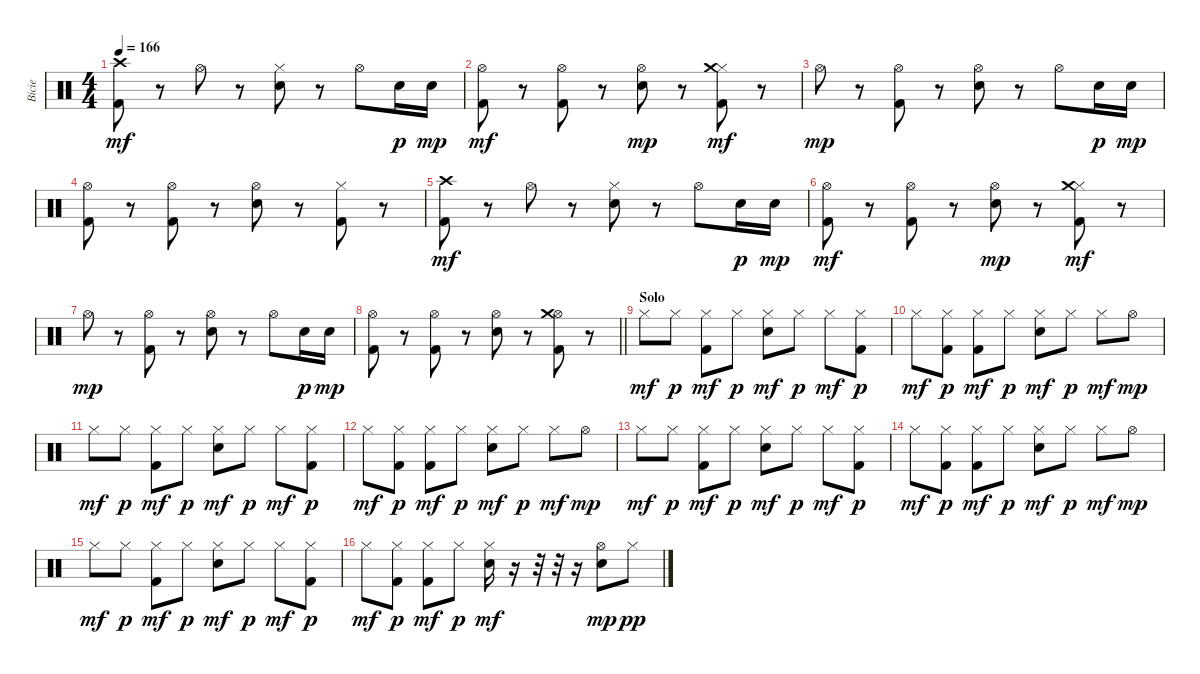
\track ("Bicie" "Bicie") {instrument percussion}
\staff {score}
\articulation defaults
\ts (4 4)
\tempo 166
\clef neutral
\ks c
("Crash high (hit)" "Kick (hit) 2").8{dy mf} r.8 "Hi-Hat (open)".8 r.8 ("Hi-Hat (closed)" "Electric Snare (hit)").8 r.8 "Hi-Hat (open)".8 "Electric Snare (hit)".16{dy p} "Electric Snare (hit)".16{dy mp} |
("Hi-Hat (open)" "Kick (hit) 2").8{dy mf} r.8 ("Hi-Hat (open)" "Kick (hit) 2").8 r.8 ("Hi-Hat (open)" "Electric Snare (hit)").8{dy mp} r.8 ("Hi-Hat (closed)" "Crash medium (hit)" "Kick (hit) 2").8{dy mf} r.8 |
"Hi-Hat (open)".8{dy mp} r.8 ("Hi-Hat (open)" "Kick (hit) 2").8 r.8 ("Hi-Hat (open)" "Electric Snare (hit)").8 r.8 "Hi-Hat (open)".8 "Electric Snare (hit)".16{dy p} "Electric Snare (hit)".16{dy mp} |
("Hi-Hat (open)" "Kick (hit) 2").8 r.8 ("Hi-Hat (open)" "Kick (hit) 2").8 r.8 ("Hi-Hat (open)" "Electric Snare (hit)").8 r.8 ("Hi-Hat (closed)" "Kick (hit) 2").8 r.8 |
("Crash high (hit)" "Kick (hit) 2").8{dy mf} r.8 "Hi-Hat (open)".8 r.8 ("Hi-Hat (closed)" "Electric Snare (hit)").8 r.8 "Hi-Hat (open)".8 "Electric Snare (hit)".16{dy p} "Electric Snare (hit)".16{dy mp} |
("Hi-Hat (open)" "Kick (hit) 2").8{dy mf} r.8 ("Hi-Hat (open)" "Kick (hit) 2").8 r.8 ("Hi-Hat (open)" "Electric Snare (hit)").8{dy mp} r.8 ("Hi-Hat (closed)" "Crash medium (hit)" "Kick (hit) 2").8{dy mf} r.8 |
"Hi-Hat (open)".8{dy mp} r.8 ("Hi-Hat (open)" "Kick (hit) 2").8 r.8 ("Hi-Hat (open)" "Electric Snare (hit)").8 r.8 "Hi-Hat (open)".8 "Electric Snare (hit)".16{dy p} "Electric Snare (hit)".16{dy mp} |
\barLineRight lightlight
("Hi-Hat (open)" "Kick (hit) 2").8 r.8 ("Hi-Hat (open)" "Kick (hit) 2").8 r.8 ("Hi-Hat (open)" "Electric Snare (hit)").8 r.8 ("Hi-Hat (open)" "Kick (hit) 2" "Crash medium (hit)").8 r.8 |
\section ("" "Solo")
"Hi-Hat (closed)".8{dy mf} "Hi-Hat (closed)".8{dy p} ("Kick (hit) 2" "Hi-Hat (closed)").8{dy mf} "Hi-Hat (closed)".8{dy p} ("Electric Snare (hit)" "Hi-Hat (closed)").8{dy mf} "Hi-Hat (closed)".8{dy p} "Hi-Hat (closed)".8{dy mf} ("Kick (hit) 2" "Hi-Hat (closed)").8{dy p} |
"Hi-Hat (closed)".8{dy mf} ("Kick (hit) 2" "Hi-Hat (closed)").8{dy p} ("Kick (hit) 2" "Hi-Hat (closed)").8{dy mf} "Hi-Hat (closed)".8{dy p} ("Electric Snare (hit)" "Hi-Hat (closed)").8{dy mf} "Hi-Hat (closed)".8{dy p} "Hi-Hat (closed)".8{dy mf} "Hi-Hat (open)".8{dy mp} |
"Hi-Hat (closed)".8{dy mf} "Hi-Hat (closed)".8{dy p} ("Kick (hit) 2" "Hi-Hat (closed)").8{dy mf} "Hi-Hat (closed)".8{dy p} ("Electric Snare (hit)" "Hi-Hat (closed)").8{dy mf} "Hi-Hat (closed)".8{dy p} "Hi-Hat (closed)".8{dy mf} ("Kick (hit) 2" "Hi-Hat (closed)").8{dy p} |
"Hi-Hat (closed)".8{dy mf} ("Kick (hit) 2" "Hi-Hat (closed)").8{dy p} ("Kick (hit) 2" "Hi-Hat (closed)").8{dy mf} "Hi-Hat (closed)".8{dy p} ("Electric Snare (hit)" "Hi-Hat (closed)").8{dy mf} "Hi-Hat (closed)".8{dy p} "Hi-Hat (closed)".8{dy mf} "Hi-Hat (open)".8{dy mp} |
"Hi-Hat (closed)".8{dy mf} "Hi-Hat (closed)".8{dy p} ("Kick (hit) 2" "Hi-Hat (closed)").8{dy mf} "Hi-Hat (closed)".8{dy p} ("Electric Snare (hit)" "Hi-Hat (closed)").8{dy mf} "Hi-Hat (closed)".8{dy p} "Hi-Hat (closed)".8{dy mf} ("Kick (hit) 2" "Hi-Hat (closed)").8{dy p} |
"Hi-Hat (closed)".8{dy mf} ("Kick (hit) 2" "Hi-Hat (closed)").8{dy p} ("Kick (hit) 2" "Hi-Hat (closed)").8{dy mf} "Hi-Hat (closed)".8{dy p} ("Electric Snare (hit)" "Hi-Hat (closed)").8{dy mf} "Hi-Hat (closed)".8{dy p} "Hi-Hat (closed)".8{dy mf} "Hi-Hat (open)".8{dy mp} |
"Hi-Hat (closed)".8{dy mf} "Hi-Hat (closed)".8{dy p} ("Kick (hit) 2" "Hi-Hat (closed)").8{dy mf} "Hi-Hat (closed)".8{dy p} ("Electric Snare (hit)" "Hi-Hat (closed)").8{dy mf} "Hi-Hat (closed)".8{dy p} "Hi-Hat (closed)".8{dy mf} ("Kick (hit) 2" "Hi-Hat (closed)").8{dy p} |
"Hi-Hat (closed)".8{dy mf} ("Kick (hit) 2" "Hi-Hat (closed)").8{dy p} ("Kick (hit) 2" "Hi-Hat (closed)").8{dy mf} "Hi-Hat (closed)".8{dy p} ("Electric Snare (hit)" "Hi-Hat (closed)").16{dy mf} r.16 r.32 r.32 r.16 ("Electric Snare (hit)" "Hi-Hat (open)").8{dy mp} "Hi-Hat (closed)".8{dy pp}
